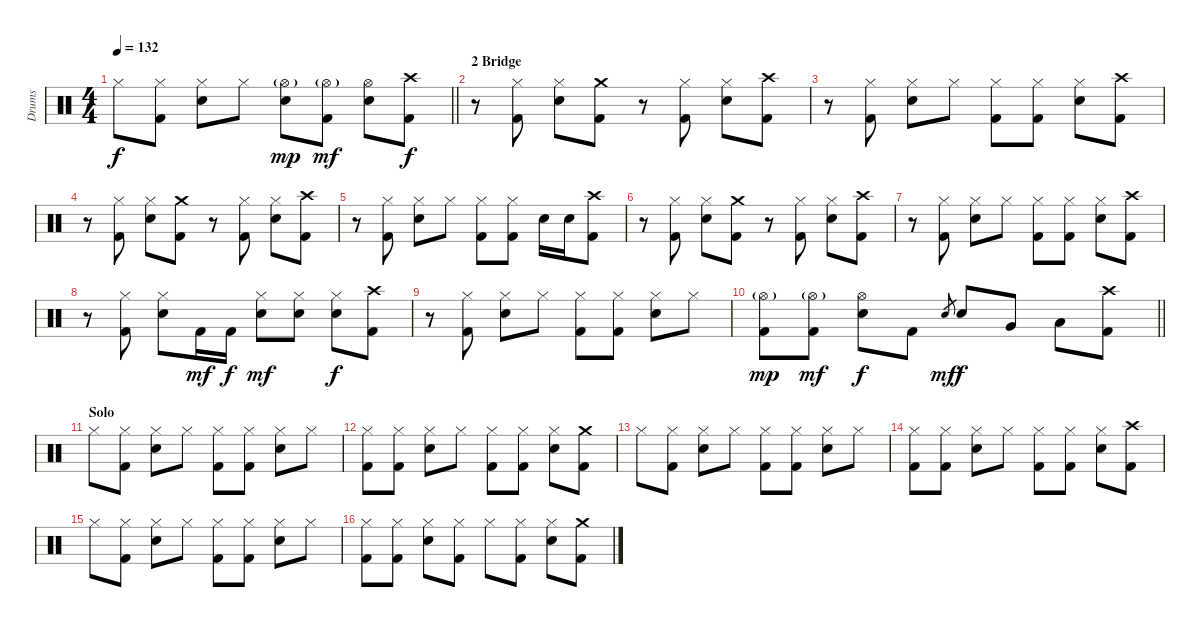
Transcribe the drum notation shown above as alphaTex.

\track ("Drums" "Drums") {instrument percussion}
\staff {score}
\articulation defaults
\ts (4 4)
\tempo 132
\clef neutral
\barLineRight lightlight
\ks c "Hi-Hat (closed)".8{dy f}
("Hi-Hat (closed)" "Kick (hit) 2").8 ("Hi-Hat (closed)" "Electric Snare (hit)").8 "Hi-Hat (closed)".8 ("Hi-Hat (open)"{g} "Electric Snare (hit)").8{dy mp} ("Hi-Hat (open)"{g} "Kick (hit) 2").8{dy mf} ("Hi-Hat (open)" "Electric Snare (hit)").8 ("Crash high (hit)" "Kick (hit) 2").8{dy f} |
\section ("" "2 Bridge")
r.8 ("Hi-Hat (closed)" "Kick (hit) 2").8 ("Hi-Hat (closed)" "Electric Snare (hit)").8 ("Crash medium (hit)" "Kick (hit) 2").8 r.8 ("Hi-Hat (closed)" "Kick (hit) 2").8 ("Hi-Hat (closed)" "Electric Snare (hit)").8 ("Crash high (hit)" "Kick (hit) 2").8 |
r.8 ("Hi-Hat (closed)" "Kick (hit) 2").8 ("Hi-Hat (closed)" "Electric Snare (hit)").8 "Hi-Hat (closed)".8 ("Hi-Hat (closed)" "Kick (hit) 2").8 ("Hi-Hat (closed)" "Kick (hit) 2").8 ("Hi-Hat (closed)" "Electric Snare (hit)").8 ("Crash high (hit)" "Kick (hit) 2").8 |
r.8 ("Hi-Hat (closed)" "Kick (hit) 2").8 ("Hi-Hat (closed)" "Electric Snare (hit)").8 ("Crash medium (hit)" "Kick (hit) 2").8 r.8 ("Hi-Hat (closed)" "Kick (hit) 2").8 ("Hi-Hat (closed)" "Electric Snare (hit)").8 ("Crash high (hit)" "Kick (hit) 2").8 |
r.8 ("Hi-Hat (closed)" "Kick (hit) 2").8 ("Hi-Hat (closed)" "Electric Snare (hit)").8 "Hi-Hat (closed)".8 ("Hi-Hat (closed)" "Kick (hit) 2").8 ("Hi-Hat (closed)" "Kick (hit) 2").8 "Electric Snare (hit)".16 "Electric Snare (hit)".16 ("Crash high (hit)" "Kick (hit) 2").8 |
r.8 ("Hi-Hat (closed)" "Kick (hit) 2").8 ("Hi-Hat (closed)" "Electric Snare (hit)").8 ("Crash medium (hit)" "Kick (hit) 2").8 r.8 ("Hi-Hat (closed)" "Kick (hit) 2").8 ("Hi-Hat (closed)" "Electric Snare (hit)").8 ("Crash high (hit)" "Kick (hit) 2").8 |
r.8 ("Hi-Hat (closed)" "Kick (hit) 2").8 ("Hi-Hat (closed)" "Electric Snare (hit)").8 "Hi-Hat (closed)".8 ("Hi-Hat (closed)" "Kick (hit) 2").8 ("Hi-Hat (closed)" "Kick (hit) 2").8 ("Hi-Hat (closed)" "Electric Snare (hit)").8 ("Crash high (hit)" "Kick (hit) 2").8 |
r.8 ("Hi-Hat (closed)" "Kick (hit) 2").8 ("Hi-Hat (closed)" "Electric Snare (hit)").8 "Kick (hit) 2".16{dy mf} "Kick (hit) 2".16{dy f} ("Hi-Hat (closed)" "Electric Snare (hit)").8{dy mf} ("Hi-Hat (closed)" "Electric Snare (hit)").8 ("Hi-Hat (closed)" "Electric Snare (hit)").8{dy f} ("Crash high (hit)" "Kick (hit) 2").8 |
r.8 ("Hi-Hat (closed)" "Kick (hit) 2").8 ("Hi-Hat (closed)" "Electric Snare (hit)").8 "Hi-Hat (closed)".8 ("Hi-Hat (closed)" "Kick (hit) 2").8 ("Hi-Hat (closed)" "Kick (hit) 2").8 ("Hi-Hat (closed)" "Electric Snare (hit)").8 "Hi-Hat (closed)".8 |
\barLineRight lightlight
("Hi-Hat (open)"{g} "Kick (hit) 2").8{dy mp} ("Hi-Hat (open)"{g} "Kick (hit) 2").8{dy mf} ("Hi-Hat (open)" "Electric Snare (hit)").8{dy f} "Kick (hit) 2".8 "Electric Snare (hit)".8{gr dy mf} "Electric Snare (hit)".8{dy f} "Very Low Tom (hit)".8 "Low Tom (hit)".8 ("Crash high (hit)" "Kick (hit) 2").8 |
\section ("" "Solo")
"Hi-Hat (closed)".8 ("Hi-Hat (closed)" "Kick (hit) 2").8 ("Hi-Hat (closed)" "Electric Snare (hit)").8 "Hi-Hat (closed)".8 ("Hi-Hat (closed)" "Kick (hit) 2").8 ("Hi-Hat (closed)" "Kick (hit) 2").8 ("Hi-Hat (closed)" "Electric Snare (hit)").8 "Hi-Hat (closed)".8 |
("Hi-Hat (closed)" "Kick (hit) 2").8 ("Hi-Hat (closed)" "Kick (hit) 2").8 ("Hi-Hat (closed)" "Electric Snare (hit)").8 "Hi-Hat (closed)".8 ("Hi-Hat (closed)" "Kick (hit) 2").8 ("Hi-Hat (closed)" "Kick (hit) 2").8 ("Hi-Hat (closed)" "Electric Snare (hit)").8 ("Crash medium (hit)" "Kick (hit) 2").8 |
"Hi-Hat (closed)".8 ("Hi-Hat (closed)" "Kick (hit) 2").8 ("Hi-Hat (closed)" "Electric Snare (hit)").8 "Hi-Hat (closed)".8 ("Hi-Hat (closed)" "Kick (hit) 2").8 ("Hi-Hat (closed)" "Kick (hit) 2").8 ("Hi-Hat (closed)" "Electric Snare (hit)").8 "Hi-Hat (closed)".8 |
("Hi-Hat (closed)" "Kick (hit) 2").8 ("Hi-Hat (closed)" "Kick (hit) 2").8 ("Hi-Hat (closed)" "Electric Snare (hit)").8 "Hi-Hat (closed)".8 ("Hi-Hat (closed)" "Kick (hit) 2").8 ("Hi-Hat (closed)" "Kick (hit) 2").8 ("Hi-Hat (closed)" "Electric Snare (hit)").8 ("Crash high (hit)" "Kick (hit) 2").8 |
"Hi-Hat (closed)".8 ("Hi-Hat (closed)" "Kick (hit) 2").8 ("Hi-Hat (closed)" "Electric Snare (hit)").8 "Hi-Hat (closed)".8 ("Hi-Hat (closed)" "Kick (hit) 2").8 ("Hi-Hat (closed)" "Kick (hit) 2").8 ("Hi-Hat (closed)" "Electric Snare (hit)").8 "Hi-Hat (closed)".8 |
("Hi-Hat (closed)" "Kick (hit) 2").8 ("Hi-Hat (closed)" "Kick (hit) 2").8 ("Hi-Hat (closed)" "Electric Snare (hit)").8 ("Hi-Hat (closed)" "Kick (hit) 2").8 "Hi-Hat (closed)".8 ("Hi-Hat (closed)" "Kick (hit) 2").8 ("Hi-Hat (closed)" "Electric Snare (hit)").8 ("Crash medium (hit)" "Kick (hit) 2").8
